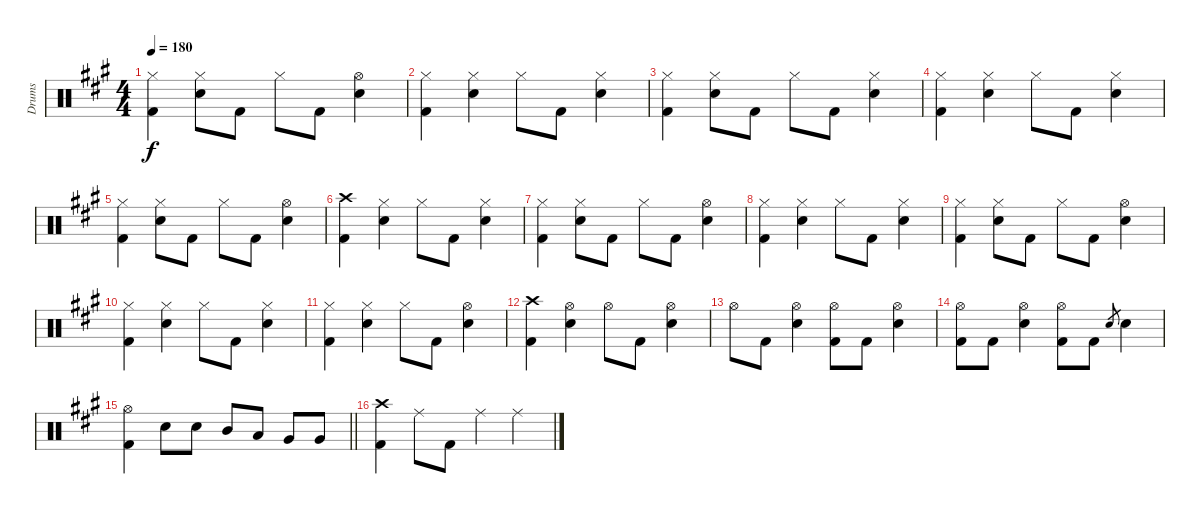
\track ("Drums" "Drums") {instrument percussion}
\staff {score}
\articulation defaults
\ts (4 4)
\tempo 180
\clef neutral
\ks a
("Hi-Hat (closed)" "Kick (hit) 2").4{dy f} ("Hi-Hat (closed)" "Electric Snare (hit)").8 "Kick (hit) 2".8 "Hi-Hat (closed)".8 "Kick (hit) 2".8 ("Hi-Hat (open)" "Electric Snare (hit)").4 |
("Hi-Hat (closed)" "Kick (hit) 2").4 ("Hi-Hat (closed)" "Electric Snare (hit)").4 "Hi-Hat (closed)".8 "Kick (hit) 2".8 ("Hi-Hat (closed)" "Electric Snare (hit)").4 |
("Hi-Hat (closed)" "Kick (hit) 2").4 ("Hi-Hat (closed)" "Electric Snare (hit)").8 "Kick (hit) 2".8 "Hi-Hat (closed)".8 "Kick (hit) 2".8 ("Hi-Hat (closed)" "Electric Snare (hit)").4 |
("Hi-Hat (closed)" "Kick (hit) 2").4 ("Hi-Hat (closed)" "Electric Snare (hit)").4 "Hi-Hat (closed)".8 "Kick (hit) 2".8 ("Hi-Hat (closed)" "Electric Snare (hit)").4 |
("Hi-Hat (closed)" "Kick (hit) 2").4 ("Hi-Hat (closed)" "Electric Snare (hit)").8 "Kick (hit) 2".8 "Hi-Hat (closed)".8 "Kick (hit) 2".8 ("Hi-Hat (open)" "Electric Snare (hit)").4 |
("Crash high (hit)" "Kick (hit) 2").4 ("Hi-Hat (closed)" "Electric Snare (hit)").4 "Hi-Hat (closed)".8 "Kick (hit) 2".8 ("Hi-Hat (closed)" "Electric Snare (hit)").4 |
("Hi-Hat (closed)" "Kick (hit) 2").4 ("Hi-Hat (closed)" "Electric Snare (hit)").8 "Kick (hit) 2".8 "Hi-Hat (closed)".8 "Kick (hit) 2".8 ("Hi-Hat (open)" "Electric Snare (hit)").4 |
("Hi-Hat (closed)" "Kick (hit) 2").4 ("Hi-Hat (closed)" "Electric Snare (hit)").4 "Hi-Hat (closed)".8 "Kick (hit) 2".8 ("Hi-Hat (closed)" "Electric Snare (hit)").4 |
("Hi-Hat (closed)" "Kick (hit) 2").4 ("Hi-Hat (closed)" "Electric Snare (hit)").8 "Kick (hit) 2".8 "Hi-Hat (closed)".8 "Kick (hit) 2".8 ("Hi-Hat (open)" "Electric Snare (hit)").4 |
("Hi-Hat (closed)" "Kick (hit) 2").4 ("Hi-Hat (closed)" "Electric Snare (hit)").4 "Hi-Hat (closed)".8 "Kick (hit) 2".8 ("Hi-Hat (closed)" "Electric Snare (hit)").4 |
("Hi-Hat (closed)" "Kick (hit) 2").4 ("Hi-Hat (closed)" "Electric Snare (hit)").4 "Hi-Hat (closed)".8 "Kick (hit) 2".8 ("Hi-Hat (open)" "Electric Snare (hit)").4 |
("Crash high (hit)" "Kick (hit) 2").4 ("Hi-Hat (open)" "Electric Snare (hit)").4 "Hi-Hat (open)".8 "Kick (hit) 2".8 ("Hi-Hat (open)" "Electric Snare (hit)").4 |
"Hi-Hat (open)".8 "Kick (hit) 2".8 ("Hi-Hat (open)" "Electric Snare (hit)").4 ("Hi-Hat (open)" "Kick (hit) 2").8 "Kick (hit) 2".8 ("Hi-Hat (open)" "Electric Snare (hit)").4 |
("Hi-Hat (open)" "Kick (hit) 2").8 "Kick (hit) 2".8 ("Hi-Hat (open)" "Electric Snare (hit)").4 ("Hi-Hat (open)" "Kick (hit) 2").8 "Kick (hit) 2".8 "Electric Snare (hit)".8{gr} "Electric Snare (hit)".4 |
\barLineRight lightlight
("Hi-Hat (open)" "Kick (hit) 2").4 "Electric Snare (hit)".8 "Electric Snare (hit)".8 "Mid Tom (hit)".8 "Low Tom (hit)".8 "Very Low Tom (hit)".8 "Very Low Tom (hit)".8 |
("Crash high (hit)" "Kick (hit) 2").4 "Ride (middle)".8 "Kick (hit) 2".8 "Ride (middle)".4 "Ride (middle)".4
